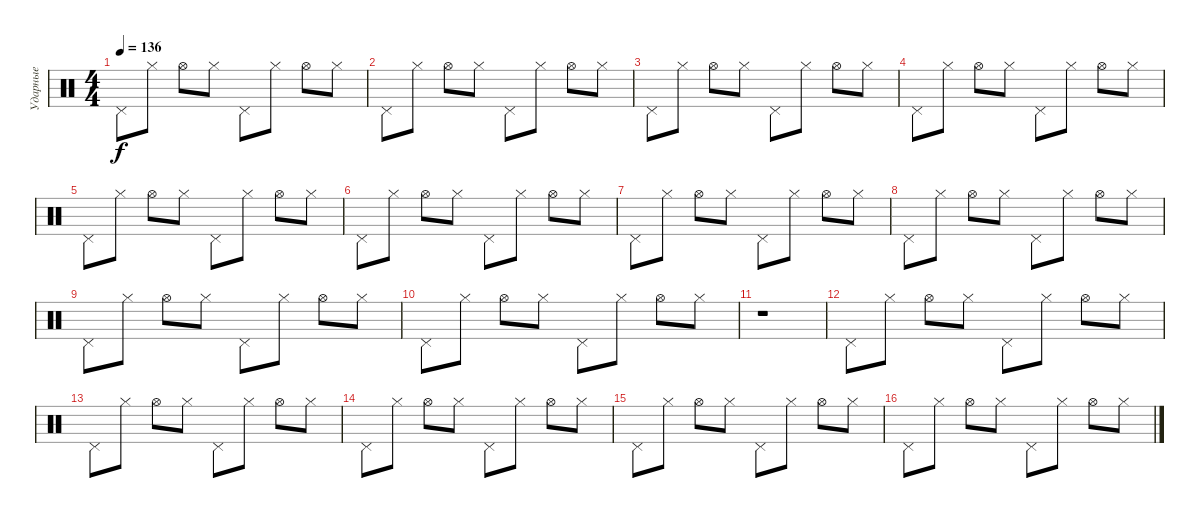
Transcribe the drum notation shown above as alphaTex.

\track ("Ударные" "Ударные") {instrument percussion}
\staff {score}
\articulation defaults
\ts (4 4)
\tempo 136
\clef neutral
\ks c "Pedal Hi-Hat (hit)".8{dy f} "Hi-Hat (closed)".8 "Hi-Hat (open)".8 "Hi-Hat (closed)".8 "Pedal Hi-Hat (hit)".8 "Hi-Hat (closed)".8 "Hi-Hat (open)".8 "Hi-Hat (closed)".8
|
"Pedal Hi-Hat (hit)".8 "Hi-Hat (closed)".8 "Hi-Hat (open)".8 "Hi-Hat (closed)".8 "Pedal Hi-Hat (hit)".8 "Hi-Hat (closed)".8 "Hi-Hat (open)".8 "Hi-Hat (closed)".8 |
"Pedal Hi-Hat (hit)".8 "Hi-Hat (closed)".8 "Hi-Hat (open)".8 "Hi-Hat (closed)".8 "Pedal Hi-Hat (hit)".8 "Hi-Hat (closed)".8 "Hi-Hat (open)".8 "Hi-Hat (closed)".8 |
"Pedal Hi-Hat (hit)".8 "Hi-Hat (closed)".8 "Hi-Hat (open)".8 "Hi-Hat (closed)".8 "Pedal Hi-Hat (hit)".8 "Hi-Hat (closed)".8 "Hi-Hat (open)".8 "Hi-Hat (closed)".8 |
"Pedal Hi-Hat (hit)".8 "Hi-Hat (closed)".8 "Hi-Hat (open)".8 "Hi-Hat (closed)".8 "Pedal Hi-Hat (hit)".8 "Hi-Hat (closed)".8 "Hi-Hat (open)".8 "Hi-Hat (closed)".8 |
"Pedal Hi-Hat (hit)".8 "Hi-Hat (closed)".8 "Hi-Hat (open)".8 "Hi-Hat (closed)".8 "Pedal Hi-Hat (hit)".8 "Hi-Hat (closed)".8 "Hi-Hat (open)".8 "Hi-Hat (closed)".8 |
"Pedal Hi-Hat (hit)".8 "Hi-Hat (closed)".8 "Hi-Hat (open)".8 "Hi-Hat (closed)".8 "Pedal Hi-Hat (hit)".8 "Hi-Hat (closed)".8 "Hi-Hat (open)".8 "Hi-Hat (closed)".8 |
"Pedal Hi-Hat (hit)".8 "Hi-Hat (closed)".8 "Hi-Hat (open)".8 "Hi-Hat (closed)".8 "Pedal Hi-Hat (hit)".8 "Hi-Hat (closed)".8 "Hi-Hat (open)".8 "Hi-Hat (closed)".8 |
"Pedal Hi-Hat (hit)".8 "Hi-Hat (closed)".8 "Hi-Hat (open)".8 "Hi-Hat (closed)".8 "Pedal Hi-Hat (hit)".8 "Hi-Hat (closed)".8 "Hi-Hat (open)".8 "Hi-Hat (closed)".8 |
"Pedal Hi-Hat (hit)".8 "Hi-Hat (closed)".8 "Hi-Hat (open)".8 "Hi-Hat (closed)".8 "Pedal Hi-Hat (hit)".8 "Hi-Hat (closed)".8 "Hi-Hat (open)".8 "Hi-Hat (closed)".8 |
r.1 |
"Pedal Hi-Hat (hit)".8 "Hi-Hat (closed)".8 "Hi-Hat (open)".8 "Hi-Hat (closed)".8 "Pedal Hi-Hat (hit)".8 "Hi-Hat (closed)".8 "Hi-Hat (open)".8 "Hi-Hat (closed)".8 |
"Pedal Hi-Hat (hit)".8 "Hi-Hat (closed)".8 "Hi-Hat (open)".8 "Hi-Hat (closed)".8 "Pedal Hi-Hat (hit)".8 "Hi-Hat (closed)".8 "Hi-Hat (open)".8 "Hi-Hat (closed)".8 |
"Pedal Hi-Hat (hit)".8 "Hi-Hat (closed)".8 "Hi-Hat (open)".8 "Hi-Hat (closed)".8 "Pedal Hi-Hat (hit)".8 "Hi-Hat (closed)".8 "Hi-Hat (open)".8 "Hi-Hat (closed)".8 |
"Pedal Hi-Hat (hit)".8 "Hi-Hat (closed)".8 "Hi-Hat (open)".8 "Hi-Hat (closed)".8 "Pedal Hi-Hat (hit)".8 "Hi-Hat (closed)".8 "Hi-Hat (open)".8 "Hi-Hat (closed)".8 |
"Pedal Hi-Hat (hit)".8 "Hi-Hat (closed)".8 "Hi-Hat (open)".8 "Hi-Hat (closed)".8 "Pedal Hi-Hat (hit)".8 "Hi-Hat (closed)".8 "Hi-Hat (open)".8 "Hi-Hat (closed)".8
